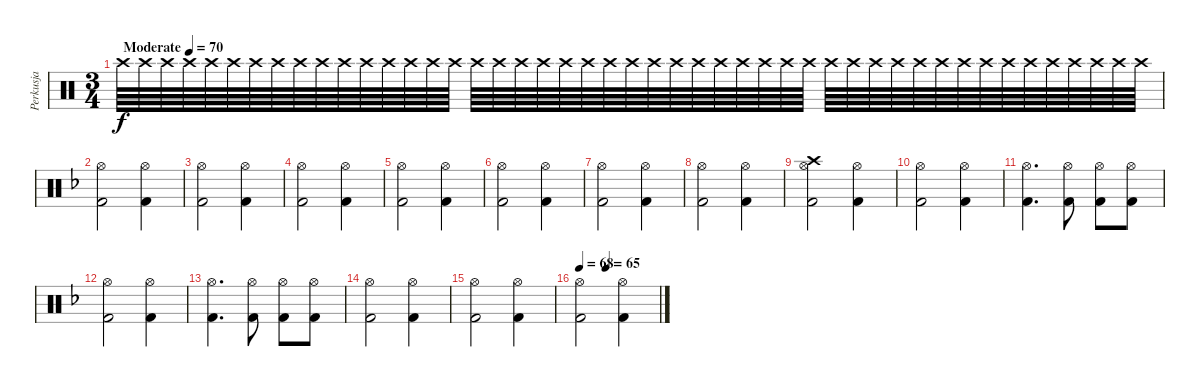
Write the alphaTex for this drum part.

\track ("Perkusja" "Perkusja") {instrument percussion}
\staff {score}
\articulation defaults
\ts (3 4)
\tempo (70 "Moderate")
\clef neutral
\ks c "Crash high (hit)".64{dy f volume 10} "Crash high (hit)".64 "Crash high (hit)".64 "Crash high (hit)".64 "Crash high (hit)".64 "Crash high (hit)".64 "Crash high (hit)".64 "Crash high (hit)".64 "Crash high (hit)".64 "Crash high (hit)".64 "Crash high (hit)".64 "Crash high (hit)".64 "Crash high (hit)".64 "Crash high (hit)".64 "Crash high (hit)".64 "Crash high (hit)".64 "Crash high (hit)".64 "Crash high (hit)".64 "Crash high (hit)".64 "Crash high (hit)".64 "Crash high (hit)".64 "Crash high (hit)".64 "Crash high (hit)".64 "Crash high (hit)".64 "Crash high (hit)".64 "Crash high (hit)".64 "Crash high (hit)".64 "Crash high (hit)".64 "Crash high (hit)".64 "Crash high (hit)".64 "Crash high (hit)".64 "Crash high (hit)".64 "Crash high (hit)".64 "Crash high (hit)".64 "Crash high (hit)".64 "Crash high (hit)".64 "Crash high (hit)".64 "Crash high (hit)".64 "Crash high (hit)".64 "Crash high (hit)".64 "Crash high (hit)".64 "Crash high (hit)".64 "Crash high (hit)".64 "Crash high (hit)".64 "Crash high (hit)".64 "Crash high (hit)".64 "Crash high (hit)".64
|
\ks f
("Kick (hit) 2" "Hi-Hat (open)").2 ("Kick (hit) 2" "Hi-Hat (open)").4 |
("Kick (hit) 2" "Hi-Hat (open)").2 ("Kick (hit) 2" "Hi-Hat (open)").4 |
("Kick (hit) 2" "Hi-Hat (open)").2 ("Kick (hit) 2" "Hi-Hat (open)").4 |
("Kick (hit) 2" "Hi-Hat (open)").2 ("Kick (hit) 2" "Hi-Hat (open)").4 |
("Kick (hit) 2" "Hi-Hat (open)").2 ("Kick (hit) 2" "Hi-Hat (open)").4 |
("Kick (hit) 2" "Hi-Hat (open)").2 ("Kick (hit) 2" "Hi-Hat (open)").4 |
("Kick (hit) 2" "Hi-Hat (open)").2 ("Kick (hit) 2" "Hi-Hat (open)").4 |
("Kick (hit) 2" "Hi-Hat (open)" "Crash high (hit)").2 ("Kick (hit) 2" "Hi-Hat (open)").4 |
("Kick (hit) 2" "Hi-Hat (open)").2 ("Kick (hit) 2" "Hi-Hat (open)").4 |
("Kick (hit) 2" "Hi-Hat (open)").4{d} ("Kick (hit) 2" "Hi-Hat (open)").8 ("Kick (hit) 2" "Hi-Hat (open)").8 ("Kick (hit) 2" "Hi-Hat (open)").8 |
("Kick (hit) 2" "Hi-Hat (open)").2 ("Kick (hit) 2" "Hi-Hat (open)").4 |
("Kick (hit) 2" "Hi-Hat (open)").4{d} ("Kick (hit) 2" "Hi-Hat (open)").8 ("Kick (hit) 2" "Hi-Hat (open)").8 ("Kick (hit) 2" "Hi-Hat (open)").8 |
("Kick (hit) 2" "Hi-Hat (open)").2 ("Kick (hit) 2" "Hi-Hat (open)").4 |
("Kick (hit) 2" "Hi-Hat (open)").2 ("Kick (hit) 2" "Hi-Hat (open)").4 |
\tempo 68
\tempo (65 0.3333333333333333)
("Kick (hit) 2" "Hi-Hat (open)").2 ("Kick (hit) 2" "Hi-Hat (open)").4
